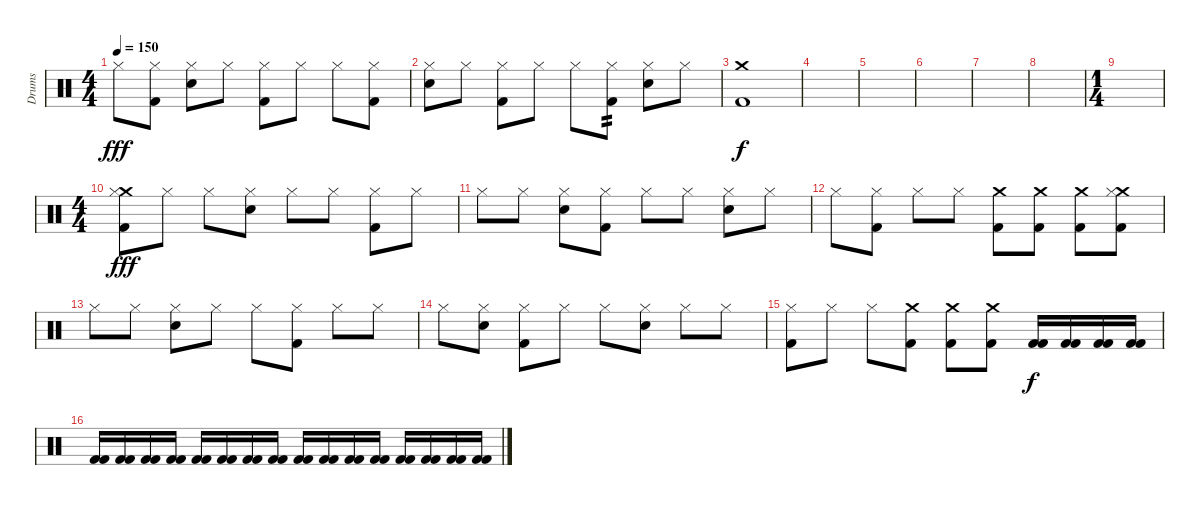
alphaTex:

\track ("Drums" "Drums") {instrument percussion}
\staff {score}
\articulation defaults
\ts (4 4)
\tempo 150
\clef neutral
\ks c "Hi-Hat (closed)".8{dy fff}
("Hi-Hat (closed)" "Kick (hit) 2").8 ("Hi-Hat (closed)" "Electric Snare (hit)").8 "Hi-Hat (closed)".8 ("Hi-Hat (closed)" "Kick (hit) 2").8 "Hi-Hat (closed)".8 "Hi-Hat (closed)".8 ("Hi-Hat (closed)" "Kick (hit) 2").8 |
("Hi-Hat (closed)" "Electric Snare (hit)").8 "Hi-Hat (closed)".8 ("Hi-Hat (closed)" "Kick (hit) 2").8 "Hi-Hat (closed)".8 "Hi-Hat (closed)".8 ("Hi-Hat (closed)" "Kick (hit) 2").8{tp 2} ("Hi-Hat (closed)" "Electric Snare (hit)").8 "Hi-Hat (closed)".8 |
("Crash medium (hit)" "Kick (hit) 2").1{dy f} |
|
|
|
|
|
\ts (1 4)
|
\ts (4 4)
("Crash medium (hit)" "Hi-Hat (closed)" "Kick (hit) 2").8{dy fff} "Hi-Hat (closed)".8 "Hi-Hat (closed)".8 ("Hi-Hat (closed)" "Electric Snare (hit)").8 "Hi-Hat (closed)".8 "Hi-Hat (closed)".8 ("Hi-Hat (closed)" "Kick (hit) 2").8 "Hi-Hat (closed)".8 |
"Hi-Hat (closed)".8 "Hi-Hat (closed)".8 ("Hi-Hat (closed)" "Electric Snare (hit)").8 ("Hi-Hat (closed)" "Kick (hit) 2").8 "Hi-Hat (closed)".8 "Hi-Hat (closed)".8 ("Hi-Hat (closed)" "Electric Snare (hit)").8 "Hi-Hat (closed)".8 |
"Hi-Hat (closed)".8 ("Hi-Hat (closed)" "Kick (hit) 2").8 "Hi-Hat (closed)".8 "Hi-Hat (closed)".8 ("Crash medium (hit)" "Kick (hit) 2").8 ("Crash medium (hit)" "Kick (hit) 2").8 ("Crash medium (hit)" "Kick (hit) 2").8 ("Crash medium (hit)" "Hi-Hat (closed)" "Kick (hit) 2").8 |
"Hi-Hat (closed)".8 "Hi-Hat (closed)".8 ("Hi-Hat (closed)" "Electric Snare (hit)").8 "Hi-Hat (closed)".8 "Hi-Hat (closed)".8 ("Hi-Hat (closed)" "Kick (hit) 2").8 "Hi-Hat (closed)".8 "Hi-Hat (closed)".8 |
"Hi-Hat (closed)".8 ("Hi-Hat (closed)" "Electric Snare (hit)").8 ("Hi-Hat (closed)" "Kick (hit) 2").8 "Hi-Hat (closed)".8 "Hi-Hat (closed)".8 ("Hi-Hat (closed)" "Electric Snare (hit)").8 "Hi-Hat (closed)".8 "Hi-Hat (closed)".8 |
("Hi-Hat (closed)" "Kick (hit) 2").8 "Hi-Hat (closed)".8 "Hi-Hat (closed)".8 ("Crash medium (hit)" "Kick (hit) 2").8 ("Crash medium (hit)" "Kick (hit) 2").8 ("Crash medium (hit)" "Kick (hit) 2").8 ("Kick (hit) 2" "Kick (hit) 2").16{dy f} ("Kick (hit) 2" "Kick (hit) 2").16 ("Kick (hit) 2" "Kick (hit) 2").16 ("Kick (hit) 2" "Kick (hit) 2").16 |
("Kick (hit) 2" "Kick (hit) 2").16 ("Kick (hit) 2" "Kick (hit) 2").16 ("Kick (hit) 2" "Kick (hit) 2").16 ("Kick (hit) 2" "Kick (hit) 2").16 ("Kick (hit) 2" "Kick (hit) 2").16 ("Kick (hit) 2" "Kick (hit) 2").16 ("Kick (hit) 2" "Kick (hit) 2").16 ("Kick (hit) 2" "Kick (hit) 2").16 ("Kick (hit) 2" "Kick (hit) 2").16 ("Kick (hit) 2" "Kick (hit) 2").16 ("Kick (hit) 2" "Kick (hit) 2").16 ("Kick (hit) 2" "Kick (hit) 2").16 ("Kick (hit) 2" "Kick (hit) 2").16 ("Kick (hit) 2" "Kick (hit) 2").16 ("Kick (hit) 2" "Kick (hit) 2").16 ("Kick (hit) 2" "Kick (hit) 2").16
